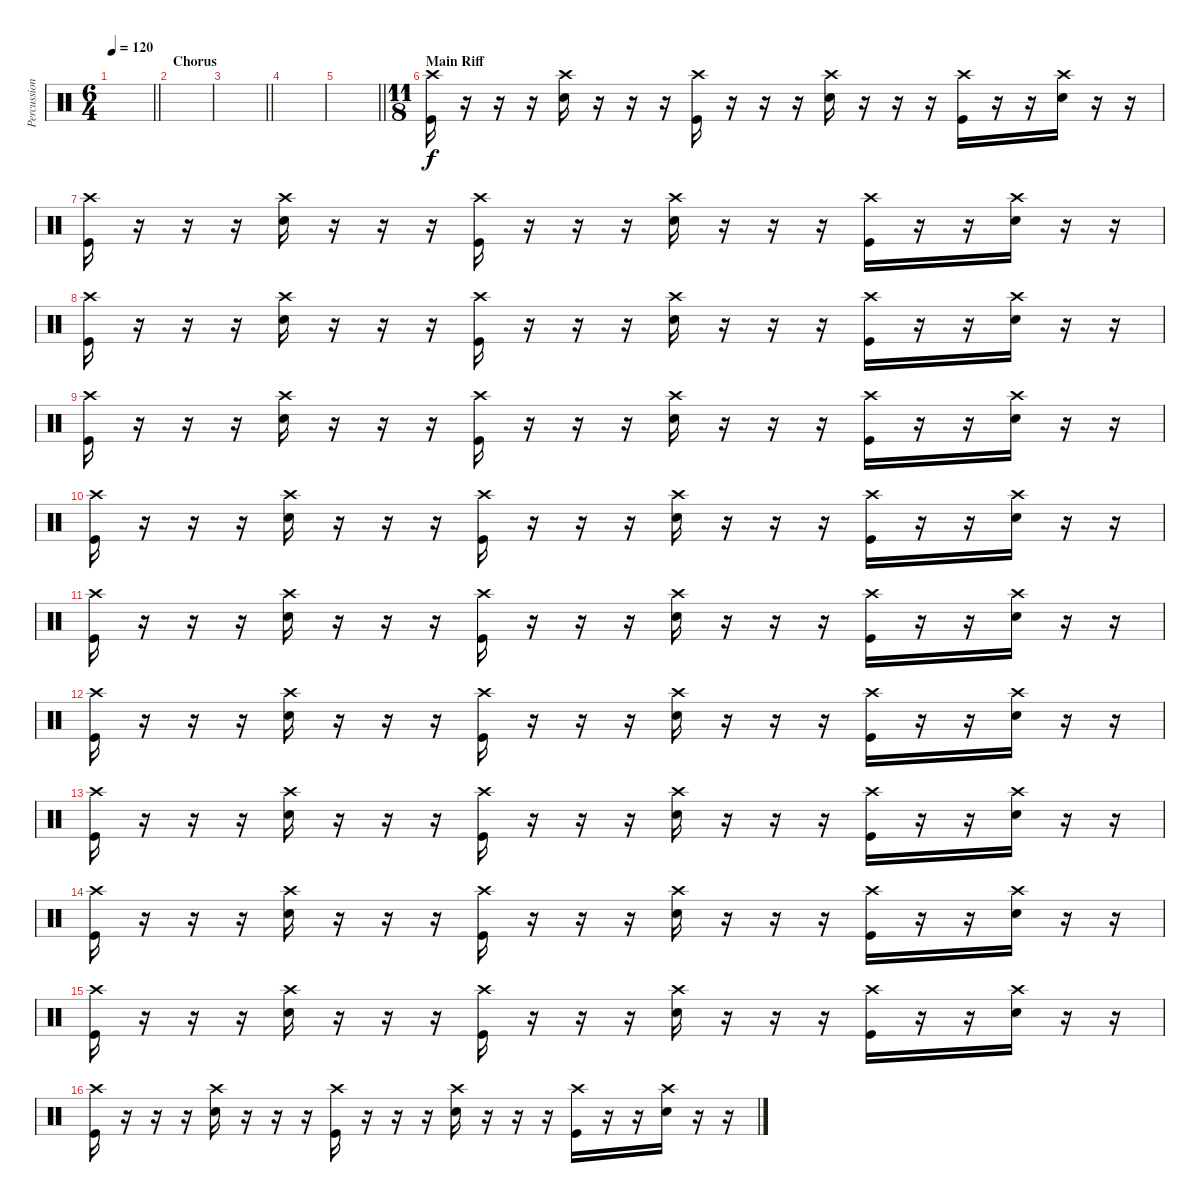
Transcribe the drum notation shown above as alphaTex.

\track ("Percussion" "Percussion") {instrument percussion}
\staff {score}
\articulation defaults
\ts (6 4)
\tempo 120
\clef neutral
\barLineRight lightlight
\ks c
|
\section ("" "Chorus")
|
\barLineRight lightlight
|
|
\barLineRight lightlight
|
\ts (11 8)
\section ("" "Main Riff")
("Crash high (hit)" "Kick (hit)").16 r.16 r.16 r.16 ("Crash high (hit)" "Snare (hit) 2").16 r.16 r.16 r.16 ("Crash high (hit)" "Kick (hit)").16 r.16 r.16 r.16 ("Crash high (hit)" "Snare (hit) 2").16 r.16 r.16 r.16 ("Crash high (hit)" "Kick (hit)").16 r.16 r.16 ("Crash high (hit)" "Snare (hit) 2").16 r.16 r.16 |
("Crash high (hit)" "Kick (hit)").16 r.16 r.16 r.16 ("Crash high (hit)" "Snare (hit) 2").16 r.16 r.16 r.16 ("Crash high (hit)" "Kick (hit)").16 r.16 r.16 r.16 ("Crash high (hit)" "Snare (hit) 2").16 r.16 r.16 r.16 ("Crash high (hit)" "Kick (hit)").16 r.16 r.16 ("Crash high (hit)" "Snare (hit) 2").16 r.16 r.16 |
("Crash high (hit)" "Kick (hit)").16 r.16 r.16 r.16 ("Crash high (hit)" "Snare (hit) 2").16 r.16 r.16 r.16 ("Crash high (hit)" "Kick (hit)").16 r.16 r.16 r.16 ("Crash high (hit)" "Snare (hit) 2").16 r.16 r.16 r.16 ("Crash high (hit)" "Kick (hit)").16 r.16 r.16 ("Crash high (hit)" "Snare (hit) 2").16 r.16 r.16 |
("Crash high (hit)" "Kick (hit)").16 r.16 r.16 r.16 ("Crash high (hit)" "Snare (hit) 2").16 r.16 r.16 r.16 ("Crash high (hit)" "Kick (hit)").16 r.16 r.16 r.16 ("Crash high (hit)" "Snare (hit) 2").16 r.16 r.16 r.16 ("Crash high (hit)" "Kick (hit)").16 r.16 r.16 ("Crash high (hit)" "Snare (hit) 2").16 r.16 r.16 |
("Crash high (hit)" "Kick (hit)").16 r.16 r.16 r.16 ("Crash high (hit)" "Snare (hit) 2").16 r.16 r.16 r.16 ("Crash high (hit)" "Kick (hit)").16 r.16 r.16 r.16 ("Crash high (hit)" "Snare (hit) 2").16 r.16 r.16 r.16 ("Crash high (hit)" "Kick (hit)").16 r.16 r.16 ("Crash high (hit)" "Snare (hit) 2").16 r.16 r.16 |
("Crash high (hit)" "Kick (hit)").16 r.16 r.16 r.16 ("Crash high (hit)" "Snare (hit) 2").16 r.16 r.16 r.16 ("Crash high (hit)" "Kick (hit)").16 r.16 r.16 r.16 ("Crash high (hit)" "Snare (hit) 2").16 r.16 r.16 r.16 ("Crash high (hit)" "Kick (hit)").16 r.16 r.16 ("Crash high (hit)" "Snare (hit) 2").16 r.16 r.16 |
("Crash high (hit)" "Kick (hit)").16 r.16 r.16 r.16 ("Crash high (hit)" "Snare (hit) 2").16 r.16 r.16 r.16 ("Crash high (hit)" "Kick (hit)").16 r.16 r.16 r.16 ("Crash high (hit)" "Snare (hit) 2").16 r.16 r.16 r.16 ("Crash high (hit)" "Kick (hit)").16 r.16 r.16 ("Crash high (hit)" "Snare (hit) 2").16 r.16 r.16 |
("Crash high (hit)" "Kick (hit)").16 r.16 r.16 r.16 ("Crash high (hit)" "Snare (hit) 2").16 r.16 r.16 r.16 ("Crash high (hit)" "Kick (hit)").16 r.16 r.16 r.16 ("Crash high (hit)" "Snare (hit) 2").16 r.16 r.16 r.16 ("Crash high (hit)" "Kick (hit)").16 r.16 r.16 ("Crash high (hit)" "Snare (hit) 2").16 r.16 r.16 |
("Crash high (hit)" "Kick (hit)").16 r.16 r.16 r.16 ("Crash high (hit)" "Snare (hit) 2").16 r.16 r.16 r.16 ("Crash high (hit)" "Kick (hit)").16 r.16 r.16 r.16 ("Crash high (hit)" "Snare (hit) 2").16 r.16 r.16 r.16 ("Crash high (hit)" "Kick (hit)").16 r.16 r.16 ("Crash high (hit)" "Snare (hit) 2").16 r.16 r.16 |
("Crash high (hit)" "Kick (hit)").16 r.16 r.16 r.16 ("Crash high (hit)" "Snare (hit) 2").16 r.16 r.16 r.16 ("Crash high (hit)" "Kick (hit)").16 r.16 r.16 r.16 ("Crash high (hit)" "Snare (hit) 2").16 r.16 r.16 r.16 ("Crash high (hit)" "Kick (hit)").16 r.16 r.16 ("Crash high (hit)" "Snare (hit) 2").16 r.16 r.16 |
("Crash high (hit)" "Kick (hit)").16 r.16 r.16 r.16 ("Crash high (hit)" "Snare (hit) 2").16 r.16 r.16 r.16 ("Crash high (hit)" "Kick (hit)").16 r.16 r.16 r.16 ("Crash high (hit)" "Snare (hit) 2").16 r.16 r.16 r.16 ("Crash high (hit)" "Kick (hit)").16 r.16 r.16 ("Crash high (hit)" "Snare (hit) 2").16 r.16 r.16
